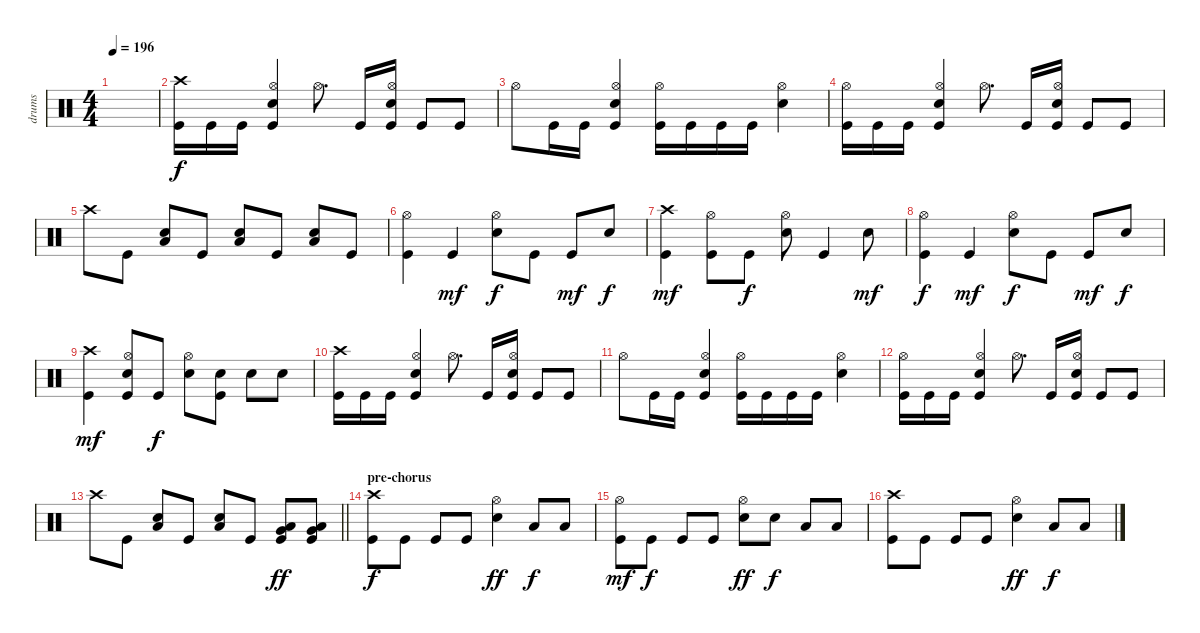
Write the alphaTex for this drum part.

\track ("drums" "drums") {instrument percussion}
\staff {score}
\articulation defaults
\ts (4 4)
\tempo 196
\clef neutral
\ks c
|
("Crash high (hit)" "Kick (hit)").16{dy f} "Kick (hit)".16 "Kick (hit)".16 ("Hi-Hat (open)" "Electric Snare (hit)" "Kick (hit)").4 "Hi-Hat (open)".8{d} "Kick (hit)".16 ("Hi-Hat (open)" "Electric Snare (hit)" "Kick (hit)").16 "Kick (hit)".8 "Kick (hit)".8 |
"Hi-Hat (open)".8 "Kick (hit)".16 "Kick (hit)".16 ("Hi-Hat (open)" "Electric Snare (hit)" "Kick (hit)").4 ("Hi-Hat (open)" "Kick (hit)").16 "Kick (hit)".16 "Kick (hit)".16 "Kick (hit)".16 ("Hi-Hat (open)" "Electric Snare (hit)").4 |
("Hi-Hat (open)" "Kick (hit)").16 "Kick (hit)".16 "Kick (hit)".16 ("Hi-Hat (open)" "Electric Snare (hit)" "Kick (hit)").4 "Hi-Hat (open)".8{d} "Kick (hit)".16 ("Hi-Hat (open)" "Electric Snare (hit)" "Kick (hit)").16 "Kick (hit)".8 "Kick (hit)".8 |
"Crash high (hit)".8 "Kick (hit)".8 ("Electric Snare (hit)" "Low Tom (hit)").8 "Kick (hit)".8 ("Electric Snare (hit)" "Low Floor Tom (hit)").8 "Kick (hit)".8 ("Electric Snare (hit)" "Low Floor Tom (hit)").8 "Kick (hit)".8 |
("Hi-Hat (open)" "Kick (hit)").4 "Kick (hit)".4{dy mf} ("Hi-Hat (open)" "Electric Snare (hit)").8{dy f} "Kick (hit)".8 "Kick (hit)".8{dy mf} "Electric Snare (hit)".8{dy f} |
("Crash high (hit)" "Kick (hit)").4{dy mf} ("Hi-Hat (open)" "Kick (hit)").8 "Kick (hit)".8{dy f} ("Hi-Hat (open)" "Electric Snare (hit)").8 "Kick (hit)".4 "Electric Snare (hit)".8{dy mf} |
("Hi-Hat (open)" "Kick (hit)").4{dy f} "Kick (hit)".4{dy mf} ("Hi-Hat (open)" "Electric Snare (hit)").8{dy f} "Kick (hit)".8 "Kick (hit)".8{dy mf} "Electric Snare (hit)".8{dy f} |
("Crash high (hit)" "Kick (hit)").4{dy mf} ("Hi-Hat (open)" "Electric Snare (hit)" "Kick (hit)").8 "Kick (hit)".8{dy f} ("Hi-Hat (open)" "Electric Snare (hit)").8 ("Electric Snare (hit)" "Kick (hit)").8 "Electric Snare (hit)".8 "Electric Snare (hit)".8 |
("Crash high (hit)" "Kick (hit)").16 "Kick (hit)".16 "Kick (hit)".16 ("Hi-Hat (open)" "Electric Snare (hit)" "Kick (hit)").4 "Hi-Hat (open)".8{d} "Kick (hit)".16 ("Hi-Hat (open)" "Electric Snare (hit)" "Kick (hit)").16 "Kick (hit)".8 "Kick (hit)".8 |
"Hi-Hat (open)".8 "Kick (hit)".16 "Kick (hit)".16 ("Hi-Hat (open)" "Electric Snare (hit)" "Kick (hit)").4 ("Hi-Hat (open)" "Kick (hit)").16 "Kick (hit)".16 "Kick (hit)".16 "Kick (hit)".16 ("Hi-Hat (open)" "Electric Snare (hit)").4 |
("Hi-Hat (open)" "Kick (hit)").16 "Kick (hit)".16 "Kick (hit)".16 ("Hi-Hat (open)" "Electric Snare (hit)" "Kick (hit)").4 "Hi-Hat (open)".8{d} "Kick (hit)".16 ("Hi-Hat (open)" "Electric Snare (hit)" "Kick (hit)").16 "Kick (hit)".8 "Kick (hit)".8 |
\barLineRight lightlight "Crash high (hit)".8 "Kick (hit)".8
("Electric Snare (hit)" "Low Tom (hit)").8 "Kick (hit)".8 ("Electric Snare (hit)" "Low Floor Tom (hit)").8 "Kick (hit)".8 ("Very Low Tom (hit)" "Low Floor Tom (hit)" "Kick (hit)").8{dy ff} ("Very Low Tom (hit)" "Low Floor Tom (hit)" "Kick (hit)").8 |
\section ("" "pre-chorus")
("Crash high (hit)" "Kick (hit)").8{dy f} "Kick (hit)".8 "Kick (hit)".8 "Kick (hit)".8 ("Hi-Hat (open)" "Electric Snare (hit)").4{dy ff} "Low Floor Tom (hit)".8{dy f} "Low Floor Tom (hit)".8 |
("Hi-Hat (open)" "Kick (hit)").8{dy mf} "Kick (hit)".8{dy f} "Kick (hit)".8 "Kick (hit)".8 ("Hi-Hat (open)" "Electric Snare (hit)").8{dy ff} "Electric Snare (hit)".8{dy f} "Low Floor Tom (hit)".8 "Low Floor Tom (hit)".8 |
("Crash high (hit)" "Kick (hit)").8 "Kick (hit)".8 "Kick (hit)".8 "Kick (hit)".8 ("Hi-Hat (open)" "Electric Snare (hit)").4{dy ff} "Low Floor Tom (hit)".8{dy f} "Low Floor Tom (hit)".8
